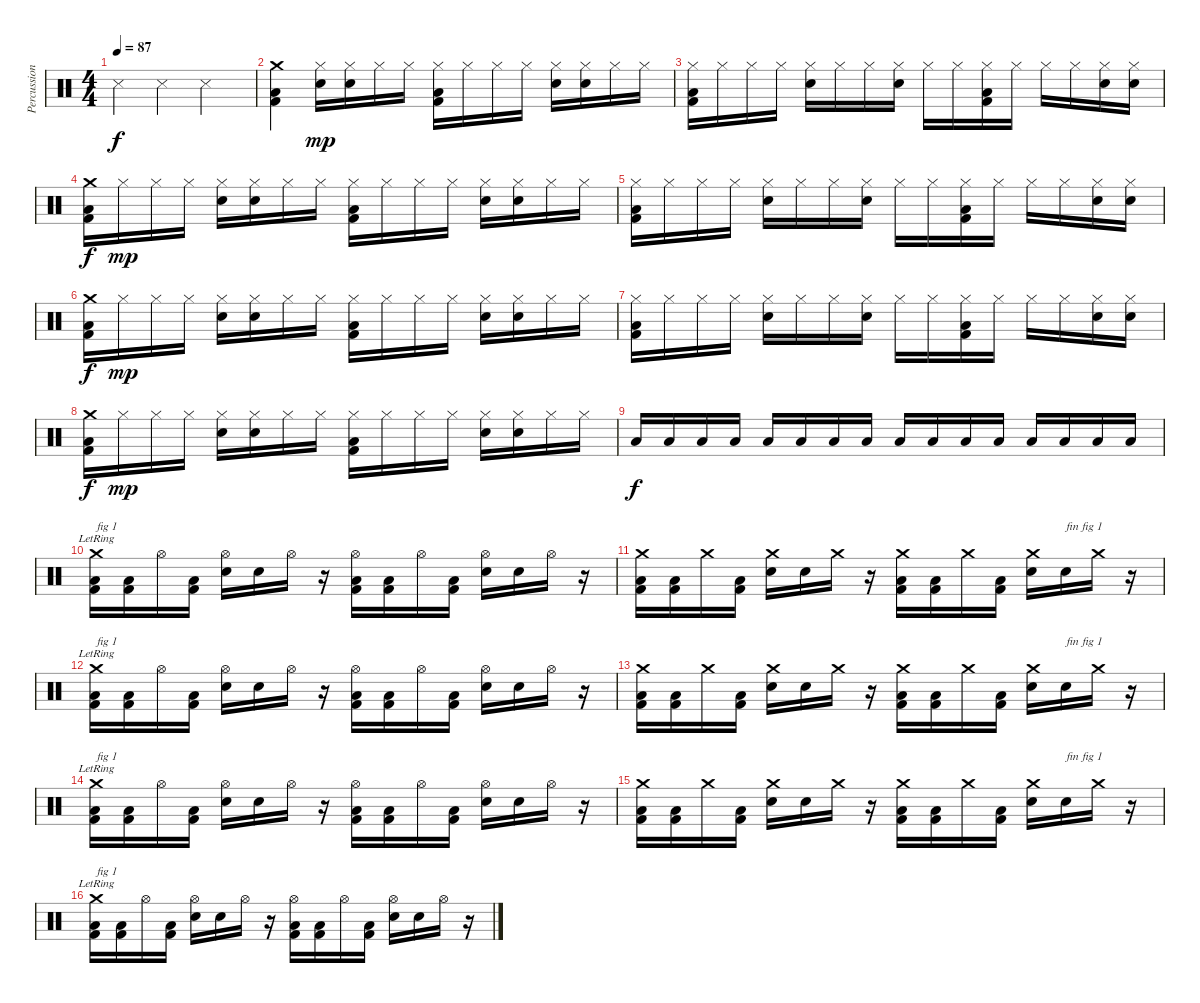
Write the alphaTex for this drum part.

\track ("Percussions" "Percussion") {instrument percussion}
\staff {score}
\articulation defaults
\ts (4 4)
\tempo 87
\clef neutral
\ks c "Metronome (hit)".4{dy f} "Metronome (hit)".4 "Metronome (hit)".2
|
("Kick (hit) 2" "Low Floor Tom (hit)" "Crash medium (hit)").4 ("Electric Snare (hit)" "Hi-Hat (closed)").16{dy mp} ("Electric Snare (hit)" "Hi-Hat (closed)").16 "Hi-Hat (closed)".16 "Hi-Hat (closed)".16 ("Kick (hit) 2" "Low Floor Tom (hit)" "Hi-Hat (closed)").16 "Hi-Hat (closed)".16 "Hi-Hat (closed)".16 "Hi-Hat (closed)".16 ("Electric Snare (hit)" "Hi-Hat (closed)").16 ("Electric Snare (hit)" "Hi-Hat (closed)").16 "Hi-Hat (closed)".16 "Hi-Hat (closed)".16 |
("Kick (hit) 2" "Low Floor Tom (hit)" "Hi-Hat (closed)").16 "Hi-Hat (closed)".16 "Hi-Hat (closed)".16 "Hi-Hat (closed)".16 ("Electric Snare (hit)" "Hi-Hat (closed)").16 "Hi-Hat (closed)".16 "Hi-Hat (closed)".16 ("Electric Snare (hit)" "Hi-Hat (closed)").16 "Hi-Hat (closed)".16 "Hi-Hat (closed)".16 ("Kick (hit) 2" "Low Floor Tom (hit)" "Hi-Hat (closed)").16 "Hi-Hat (closed)".16 "Hi-Hat (closed)".16 "Hi-Hat (closed)".16 ("Electric Snare (hit)" "Hi-Hat (closed)").16 ("Electric Snare (hit)" "Hi-Hat (closed)").16 |
("Kick (hit) 2" "Low Floor Tom (hit)" "Crash medium (hit)").16{dy f} "Hi-Hat (closed)".16{dy mp} "Hi-Hat (closed)".16 "Hi-Hat (closed)".16 ("Electric Snare (hit)" "Hi-Hat (closed)").16 ("Electric Snare (hit)" "Hi-Hat (closed)").16 "Hi-Hat (closed)".16 "Hi-Hat (closed)".16 ("Kick (hit) 2" "Low Floor Tom (hit)" "Hi-Hat (closed)").16 "Hi-Hat (closed)".16 "Hi-Hat (closed)".16 "Hi-Hat (closed)".16 ("Electric Snare (hit)" "Hi-Hat (closed)").16 ("Electric Snare (hit)" "Hi-Hat (closed)").16 "Hi-Hat (closed)".16 "Hi-Hat (closed)".16 |
("Kick (hit) 2" "Low Floor Tom (hit)" "Hi-Hat (closed)").16 "Hi-Hat (closed)".16 "Hi-Hat (closed)".16 "Hi-Hat (closed)".16 ("Electric Snare (hit)" "Hi-Hat (closed)").16 "Hi-Hat (closed)".16 "Hi-Hat (closed)".16 ("Electric Snare (hit)" "Hi-Hat (closed)").16 "Hi-Hat (closed)".16 "Hi-Hat (closed)".16 ("Kick (hit) 2" "Low Floor Tom (hit)" "Hi-Hat (closed)").16 "Hi-Hat (closed)".16 "Hi-Hat (closed)".16 "Hi-Hat (closed)".16 ("Electric Snare (hit)" "Hi-Hat (closed)").16 ("Electric Snare (hit)" "Hi-Hat (closed)").16 |
("Kick (hit) 2" "Low Floor Tom (hit)" "Crash medium (hit)").16{dy f} "Hi-Hat (closed)".16{dy mp} "Hi-Hat (closed)".16 "Hi-Hat (closed)".16 ("Electric Snare (hit)" "Hi-Hat (closed)").16 ("Electric Snare (hit)" "Hi-Hat (closed)").16 "Hi-Hat (closed)".16 "Hi-Hat (closed)".16 ("Kick (hit) 2" "Low Floor Tom (hit)" "Hi-Hat (closed)").16 "Hi-Hat (closed)".16 "Hi-Hat (closed)".16 "Hi-Hat (closed)".16 ("Electric Snare (hit)" "Hi-Hat (closed)").16 ("Electric Snare (hit)" "Hi-Hat (closed)").16 "Hi-Hat (closed)".16 "Hi-Hat (closed)".16 |
("Kick (hit) 2" "Low Floor Tom (hit)" "Hi-Hat (closed)").16 "Hi-Hat (closed)".16 "Hi-Hat (closed)".16 "Hi-Hat (closed)".16 ("Electric Snare (hit)" "Hi-Hat (closed)").16 "Hi-Hat (closed)".16 "Hi-Hat (closed)".16 ("Electric Snare (hit)" "Hi-Hat (closed)").16 "Hi-Hat (closed)".16 "Hi-Hat (closed)".16 ("Kick (hit) 2" "Low Floor Tom (hit)" "Hi-Hat (closed)").16 "Hi-Hat (closed)".16 "Hi-Hat (closed)".16 "Hi-Hat (closed)".16 ("Electric Snare (hit)" "Hi-Hat (closed)").16 ("Electric Snare (hit)" "Hi-Hat (closed)").16 |
("Kick (hit) 2" "Low Floor Tom (hit)" "Crash medium (hit)").16{dy f} "Hi-Hat (closed)".16{dy mp} "Hi-Hat (closed)".16 "Hi-Hat (closed)".16 ("Electric Snare (hit)" "Hi-Hat (closed)").16 ("Electric Snare (hit)" "Hi-Hat (closed)").16 "Hi-Hat (closed)".16 "Hi-Hat (closed)".16 ("Kick (hit) 2" "Low Floor Tom (hit)" "Hi-Hat (closed)").16 "Hi-Hat (closed)".16 "Hi-Hat (closed)".16 "Hi-Hat (closed)".16 ("Electric Snare (hit)" "Hi-Hat (closed)").16 ("Electric Snare (hit)" "Hi-Hat (closed)").16 "Hi-Hat (closed)".16 "Hi-Hat (closed)".16 |
"Low Tom (hit)".16{dy f} "Low Tom (hit)".16 "Low Tom (hit)".16 "Low Tom (hit)".16 "Low Tom (hit)".16 "Low Tom (hit)".16 "Low Tom (hit)".16 "Low Tom (hit)".16 "Low Tom (hit)".16 "Low Tom (hit)".16 "Low Tom (hit)".16 "Low Tom (hit)".16 "Low Tom (hit)".16 "Low Tom (hit)".16 "Low Tom (hit)".16 "Low Tom (hit)".16 |
("Kick (hit) 2" "Low Floor Tom (hit)" "Crash medium (hit)"{lr}).16{txt "fig 1"} ("Kick (hit) 2" "Low Floor Tom (hit)").16 "Hi-Hat (open)".16 ("Kick (hit) 2" "Low Floor Tom (hit)").16 ("Electric Snare (hit)" "Hi-Hat (open)").16 "Electric Snare (hit)".16 "Hi-Hat (open)".16 r.16 ("Kick (hit) 2" "Low Floor Tom (hit)" "Hi-Hat (open)").16 ("Kick (hit) 2" "Low Floor Tom (hit)").16 "Hi-Hat (open)".16 ("Kick (hit) 2" "Low Floor Tom (hit)").16 ("Electric Snare (hit)" "Hi-Hat (open)").16 "Electric Snare (hit)".16 "Hi-Hat (open)".16 r.16 |
("Kick (hit) 2" "Low Floor Tom (hit)" "Crash medium (hit)").16 ("Kick (hit) 2" "Low Floor Tom (hit)").16 "Crash medium (hit)".16 ("Kick (hit) 2" "Low Floor Tom (hit)").16 ("Electric Snare (hit)" "Crash medium (hit)").16 "Electric Snare (hit)".16 "Crash medium (hit)".16 r.16 ("Kick (hit) 2" "Low Floor Tom (hit)" "Crash medium (hit)").16 ("Kick (hit) 2" "Low Floor Tom (hit)").16 "Crash medium (hit)".16 ("Kick (hit) 2" "Low Floor Tom (hit)").16 ("Electric Snare (hit)" "Crash medium (hit)").16 "Electric Snare (hit)".16{txt "fin fig 1"} "Crash medium (hit)".16 r.16 |
("Kick (hit) 2" "Low Floor Tom (hit)" "Crash medium (hit)"{lr}).16{txt "fig 1"} ("Kick (hit) 2" "Low Floor Tom (hit)").16 "Hi-Hat (open)".16 ("Kick (hit) 2" "Low Floor Tom (hit)").16 ("Electric Snare (hit)" "Hi-Hat (open)").16 "Electric Snare (hit)".16 "Hi-Hat (open)".16 r.16 ("Kick (hit) 2" "Low Floor Tom (hit)" "Hi-Hat (open)").16 ("Kick (hit) 2" "Low Floor Tom (hit)").16 "Hi-Hat (open)".16 ("Kick (hit) 2" "Low Floor Tom (hit)").16 ("Electric Snare (hit)" "Hi-Hat (open)").16 "Electric Snare (hit)".16 "Hi-Hat (open)".16 r.16 |
("Kick (hit) 2" "Low Floor Tom (hit)" "Crash medium (hit)").16 ("Kick (hit) 2" "Low Floor Tom (hit)").16 "Crash medium (hit)".16 ("Kick (hit) 2" "Low Floor Tom (hit)").16 ("Electric Snare (hit)" "Crash medium (hit)").16 "Electric Snare (hit)".16 "Crash medium (hit)".16 r.16 ("Kick (hit) 2" "Low Floor Tom (hit)" "Crash medium (hit)").16 ("Kick (hit) 2" "Low Floor Tom (hit)").16 "Crash medium (hit)".16 ("Kick (hit) 2" "Low Floor Tom (hit)").16 ("Electric Snare (hit)" "Crash medium (hit)").16 "Electric Snare (hit)".16{txt "fin fig 1"} "Crash medium (hit)".16 r.16 |
("Kick (hit) 2" "Low Floor Tom (hit)" "Crash medium (hit)"{lr}).16{txt "fig 1"} ("Kick (hit) 2" "Low Floor Tom (hit)").16 "Hi-Hat (open)".16 ("Kick (hit) 2" "Low Floor Tom (hit)").16 ("Electric Snare (hit)" "Hi-Hat (open)").16 "Electric Snare (hit)".16 "Hi-Hat (open)".16 r.16 ("Kick (hit) 2" "Low Floor Tom (hit)" "Hi-Hat (open)").16 ("Kick (hit) 2" "Low Floor Tom (hit)").16 "Hi-Hat (open)".16 ("Kick (hit) 2" "Low Floor Tom (hit)").16 ("Electric Snare (hit)" "Hi-Hat (open)").16 "Electric Snare (hit)".16 "Hi-Hat (open)".16 r.16 |
("Kick (hit) 2" "Low Floor Tom (hit)" "Crash medium (hit)").16 ("Kick (hit) 2" "Low Floor Tom (hit)").16 "Crash medium (hit)".16 ("Kick (hit) 2" "Low Floor Tom (hit)").16 ("Electric Snare (hit)" "Crash medium (hit)").16 "Electric Snare (hit)".16 "Crash medium (hit)".16 r.16 ("Kick (hit) 2" "Low Floor Tom (hit)" "Crash medium (hit)").16 ("Kick (hit) 2" "Low Floor Tom (hit)").16 "Crash medium (hit)".16 ("Kick (hit) 2" "Low Floor Tom (hit)").16 ("Electric Snare (hit)" "Crash medium (hit)").16 "Electric Snare (hit)".16{txt "fin fig 1"} "Crash medium (hit)".16 r.16 |
("Kick (hit) 2" "Low Floor Tom (hit)" "Crash medium (hit)"{lr}).16{txt "fig 1"} ("Kick (hit) 2" "Low Floor Tom (hit)").16 "Hi-Hat (open)".16 ("Kick (hit) 2" "Low Floor Tom (hit)").16 ("Electric Snare (hit)" "Hi-Hat (open)").16 "Electric Snare (hit)".16 "Hi-Hat (open)".16 r.16 ("Kick (hit) 2" "Low Floor Tom (hit)" "Hi-Hat (open)").16 ("Kick (hit) 2" "Low Floor Tom (hit)").16 "Hi-Hat (open)".16 ("Kick (hit) 2" "Low Floor Tom (hit)").16 ("Electric Snare (hit)" "Hi-Hat (open)").16 "Electric Snare (hit)".16 "Hi-Hat (open)".16 r.16
